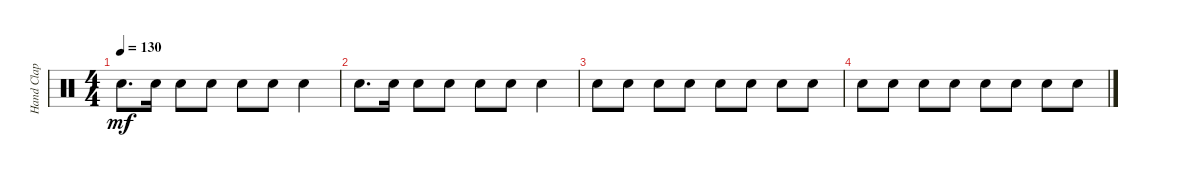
\track ("Hand Clap" "Hand Clap") {instrument percussion}
\staff {score}
\articulation defaults
\ts (4 4)
\tempo 130
\clef neutral
\ks c "Hand Clap (hit)".8{d dy mf} "Hand Clap (hit)".16 "Hand Clap (hit)".8 "Hand Clap (hit)".8 "Hand Clap (hit)".8 "Hand Clap (hit)".8 "Hand Clap (hit)".4
|
"Hand Clap (hit)".8{d} "Hand Clap (hit)".16 "Hand Clap (hit)".8 "Hand Clap (hit)".8 "Hand Clap (hit)".8 "Hand Clap (hit)".8 "Hand Clap (hit)".4 |
"Hand Clap (hit)".8 "Hand Clap (hit)".8 "Hand Clap (hit)".8 "Hand Clap (hit)".8 "Hand Clap (hit)".8 "Hand Clap (hit)".8 "Hand Clap (hit)".8 "Hand Clap (hit)".8 |
"Hand Clap (hit)".8 "Hand Clap (hit)".8 "Hand Clap (hit)".8 "Hand Clap (hit)".8 "Hand Clap (hit)".8 "Hand Clap (hit)".8 "Hand Clap (hit)".8 "Hand Clap (hit)".8
